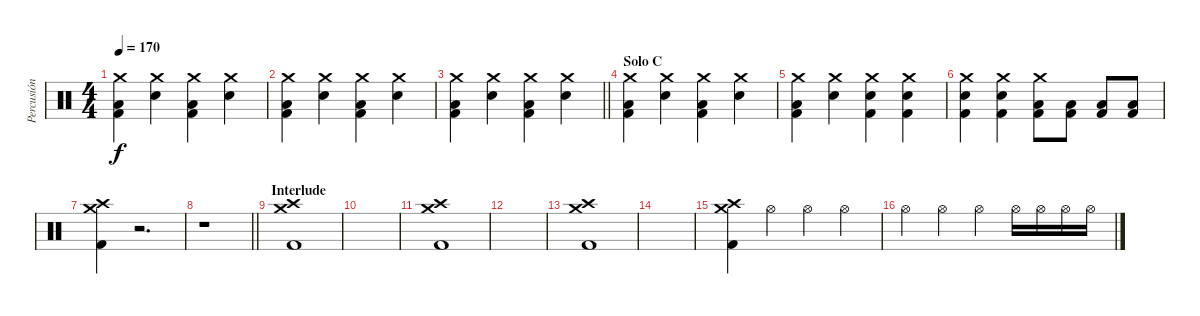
\track ("Percusión" "Percusión") {instrument percussion}
\staff {score}
\articulation defaults
\ts (4 4)
\tempo 170
\clef neutral
\ks c
("Crash medium (hit)" "Low Floor Tom (hit)" "Kick (hit) 2").4{dy f} ("Crash medium (hit)" "Snare (hit) 2").4 ("Crash medium (hit)" "Low Floor Tom (hit)" "Kick (hit) 2").4 ("Crash medium (hit)" "Snare (hit) 2").4 |
("Crash medium (hit)" "Low Floor Tom (hit)" "Kick (hit) 2").4 ("Crash medium (hit)" "Snare (hit) 2").4 ("Crash medium (hit)" "Low Floor Tom (hit)" "Kick (hit) 2").4 ("Crash medium (hit)" "Snare (hit) 2").4 |
\barLineRight lightlight
("Crash medium (hit)" "Low Floor Tom (hit)" "Kick (hit) 2").4 ("Crash medium (hit)" "Snare (hit) 2").4 ("Crash medium (hit)" "Low Floor Tom (hit)" "Kick (hit) 2").4 ("Crash medium (hit)" "Snare (hit) 2").4 |
\section ("" "Solo C")
("Crash medium (hit)" "Low Floor Tom (hit)" "Kick (hit) 2").4 ("Crash medium (hit)" "Snare (hit) 2").4 ("Crash medium (hit)" "Low Floor Tom (hit)" "Kick (hit) 2").4 ("Crash medium (hit)" "Snare (hit) 2").4 |
("Crash medium (hit)" "Low Floor Tom (hit)" "Kick (hit) 2").4 ("Crash medium (hit)" "Electric Snare (hit)").4 ("Crash medium (hit)" "Electric Snare (hit)" "Kick (hit) 2").4 ("Crash medium (hit)" "Electric Snare (hit)" "Kick (hit) 2").4 |
("Crash medium (hit)" "Electric Snare (hit)" "Kick (hit) 2").4 ("Crash medium (hit)" "Electric Snare (hit)" "Kick (hit) 2").4 ("Crash medium (hit)" "Low Floor Tom (hit)" "Kick (hit) 2").8 ("Low Floor Tom (hit)" "Kick (hit) 2").8 ("Low Floor Tom (hit)" "Kick (hit) 2").8 ("Low Floor Tom (hit)" "Kick (hit) 2").8 |
("Crash high (hit)" "Crash medium (hit)" "Kick (hit) 2").4 r.2{d} |
\barLineRight lightlight
r.1 |
\section ("" "Interlude")
("Crash medium (hit)" "Crash high (hit)" "Kick (hit) 2").1 |
|
("Crash medium (hit)" "Crash high (hit)" "Kick (hit) 2").1 |
|
("Crash medium (hit)" "Crash high (hit)" "Kick (hit) 2").1 |
|
("Crash medium (hit)" "Crash high (hit)" "Kick (hit) 2").4 "Hi-Hat (open)".4 "Hi-Hat (open)".4 "Hi-Hat (open)".4 |
"Hi-Hat (open)".4 "Hi-Hat (open)".4 "Hi-Hat (open)".4 "Hi-Hat (open)".16 "Hi-Hat (open)".16 "Hi-Hat (open)".16 "Hi-Hat (open)".16
